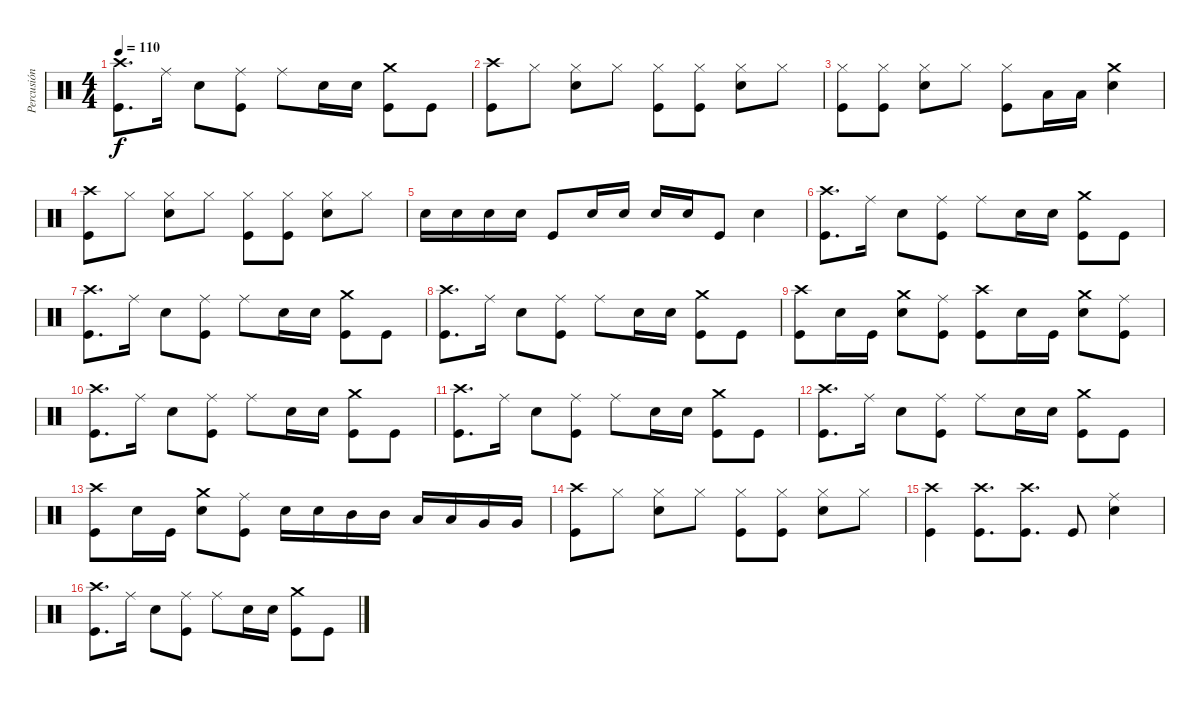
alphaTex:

\track ("Percusión" "Percusión") {instrument percussion}
\staff {score}
\articulation defaults
\ts (4 4)
\tempo 110
\clef neutral
\ks c
("Crash high (hit)" "Kick (hit)").8{d dy f} "Ride (middle)".16 "Snare (hit) 2".8 ("Ride (middle)" "Kick (hit)").8 "Ride (middle)".8 "Snare (hit) 2".16 "Snare (hit) 2".16 ("Crash medium (hit)" "Kick (hit)").8 "Kick (hit)".8 |
("Crash high (hit)" "Kick (hit)").8 "Hi-Hat (closed)".8 ("Hi-Hat (closed)" "Snare (hit) 2").8 "Hi-Hat (closed)".8 ("Hi-Hat (closed)" "Kick (hit)").8 ("Hi-Hat (closed)" "Kick (hit)").8 ("Hi-Hat (closed)" "Snare (hit) 2").8 "Hi-Hat (closed)".8 |
("Hi-Hat (closed)" "Kick (hit)").8 ("Hi-Hat (closed)" "Kick (hit)").8 ("Hi-Hat (closed)" "Snare (hit) 2").8 "Hi-Hat (closed)".8 ("Hi-Hat (closed)" "Kick (hit)").8 "Low Tom (hit)".16 "Low Tom (hit)".16 ("Crash medium (hit)" "Snare (hit) 2").4 |
("Crash high (hit)" "Kick (hit)").8 "Hi-Hat (closed)".8 ("Hi-Hat (closed)" "Snare (hit) 2").8 "Hi-Hat (closed)".8 ("Hi-Hat (closed)" "Kick (hit)").8 ("Hi-Hat (closed)" "Kick (hit)").8 ("Hi-Hat (closed)" "Snare (hit) 2").8 "Hi-Hat (closed)".8 |
"Snare (hit) 2".16 "Snare (hit) 2".16 "Snare (hit) 2".16 "Snare (hit) 2".16 "Kick (hit)".8 "Snare (hit) 2".16 "Snare (hit) 2".16 "Snare (hit) 2".16 "Snare (hit) 2".16 "Kick (hit)".8 "Snare (hit) 2".4 |
("Crash high (hit)" "Kick (hit)").8{d} "Ride (middle)".16 "Snare (hit) 2".8 ("Ride (middle)" "Kick (hit)").8 "Ride (middle)".8 "Snare (hit) 2".16 "Snare (hit) 2".16 ("Crash medium (hit)" "Kick (hit)").8 "Kick (hit)".8 |
("Crash high (hit)" "Kick (hit)").8{d} "Ride (middle)".16 "Snare (hit) 2".8 ("Ride (middle)" "Kick (hit)").8 "Ride (middle)".8 "Snare (hit) 2".16 "Snare (hit) 2".16 ("Crash medium (hit)" "Kick (hit)").8 "Kick (hit)".8 |
("Crash high (hit)" "Kick (hit)").8{d} "Ride (middle)".16 "Snare (hit) 2".8 ("Ride (middle)" "Kick (hit)").8 "Ride (middle)".8 "Snare (hit) 2".16 "Snare (hit) 2".16 ("Crash medium (hit)" "Kick (hit)").8 "Kick (hit)".8 |
("Crash high (hit)" "Kick (hit)").8 "Snare (hit) 2".16 "Kick (hit)".16 ("Crash medium (hit)" "Snare (hit) 2").8 ("Ride (middle)" "Kick (hit)").8 ("Crash high (hit)" "Kick (hit)").8 "Snare (hit) 2".16 "Kick (hit)".16 ("Crash medium (hit)" "Snare (hit) 2").8 ("Ride (middle)" "Kick (hit)").8 |
("Crash high (hit)" "Kick (hit)").8{d} "Ride (middle)".16 "Snare (hit) 2".8 ("Ride (middle)" "Kick (hit)").8 "Ride (middle)".8 "Snare (hit) 2".16 "Snare (hit) 2".16 ("Crash medium (hit)" "Kick (hit)").8 "Kick (hit)".8 |
("Crash high (hit)" "Kick (hit)").8{d} "Ride (middle)".16 "Snare (hit) 2".8 ("Ride (middle)" "Kick (hit)").8 "Ride (middle)".8 "Snare (hit) 2".16 "Snare (hit) 2".16 ("Crash medium (hit)" "Kick (hit)").8 "Kick (hit)".8 |
("Crash high (hit)" "Kick (hit)").8{d} "Ride (middle)".16 "Snare (hit) 2".8 ("Ride (middle)" "Kick (hit)").8 "Ride (middle)".8 "Snare (hit) 2".16 "Snare (hit) 2".16 ("Crash medium (hit)" "Kick (hit)").8 "Kick (hit)".8 |
("Crash high (hit)" "Kick (hit)").8 "Snare (hit) 2".16 "Kick (hit)".16 ("Crash medium (hit)" "Snare (hit) 2").8 ("Ride (middle)" "Kick (hit)").8 "Snare (hit) 2".16 "Snare (hit) 2".16 "Mid Tom (hit)".16 "Mid Tom (hit)".16 "Low Tom (hit)".16 "Low Tom (hit)".16 "Very Low Tom (hit)".16 "Very Low Tom (hit)".16 |
("Crash high (hit)" "Kick (hit)").8 "Hi-Hat (closed)".8 ("Hi-Hat (closed)" "Snare (hit) 2").8 "Hi-Hat (closed)".8 ("Hi-Hat (closed)" "Kick (hit)").8 ("Hi-Hat (closed)" "Kick (hit)").8 ("Hi-Hat (closed)" "Snare (hit) 2").8 "Hi-Hat (closed)".8 |
("Crash high (hit)" "Kick (hit)").4 ("Crash high (hit)" "Kick (hit)").8{d} ("Crash high (hit)" "Kick (hit)").8{d} "Kick (hit)".8 ("Ride (middle)" "Snare (hit) 2").4 |
("Crash high (hit)" "Kick (hit)").8{d} "Ride (middle)".16 "Snare (hit) 2".8 ("Ride (middle)" "Kick (hit)").8 "Ride (middle)".8 "Snare (hit) 2".16 "Snare (hit) 2".16 ("Crash medium (hit)" "Kick (hit)").8 "Kick (hit)".8
